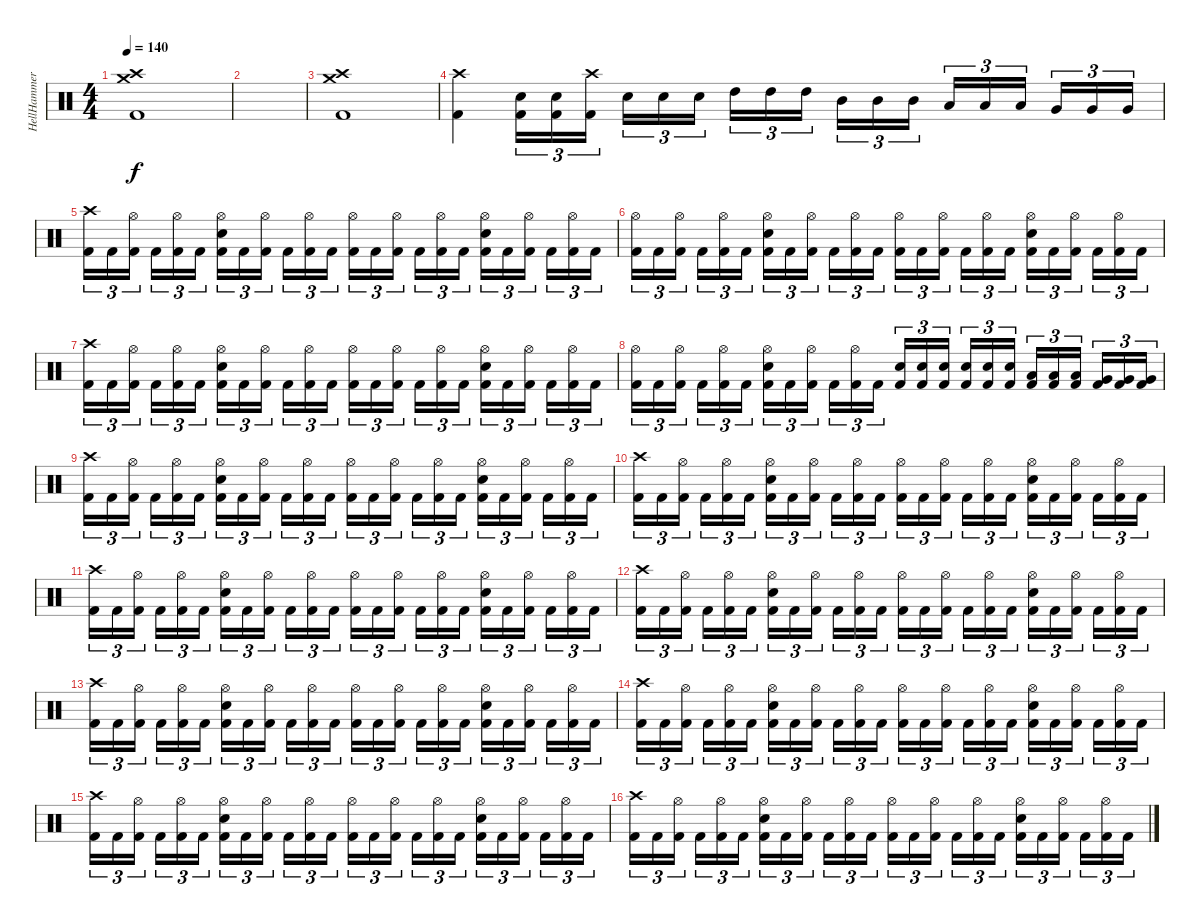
\track ("HellHammer" "HellHammer") {instrument percussion}
\staff {score}
\articulation defaults
\ts (4 4)
\tempo 140
\clef neutral
\ks c
("Crash medium (hit)" "Crash high (hit)" "Kick (hit) 2").1{dy f} |
|
("Crash medium (hit)" "Crash high (hit)" "Kick (hit) 2").1 |
("Crash high (hit)" "Kick (hit) 2").4 ("Electric Snare (hit)" "Kick (hit) 2").16{tu (3 2)} ("Electric Snare (hit)" "Kick (hit) 2").16{tu (3 2)} ("Crash high (hit)" "Kick (hit) 2").16{tu (3 2) beam splitsecondary} "Electric Snare (hit)".16{tu (3 2)} "Electric Snare (hit)".16{tu (3 2)} "Electric Snare (hit)".16{tu (3 2)} "High Tom (hit)".16{tu (3 2)} "High Tom (hit)".16{tu (3 2)} "High Tom (hit)".16{tu (3 2) beam splitsecondary} "Mid Tom (hit)".16{tu (3 2)} "Mid Tom (hit)".16{tu (3 2)} "Mid Tom (hit)".16{tu (3 2)} "Low Tom (hit)".16{tu (3 2)} "Low Tom (hit)".16{tu (3 2)} "Low Tom (hit)".16{tu (3 2) beam splitsecondary} "Very Low Tom (hit)".16{tu (3 2)} "Very Low Tom (hit)".16{tu (3 2)} "Very Low Tom (hit)".16{tu (3 2)} |
("Crash high (hit)" "Kick (hit) 2").16{tu (3 2)} "Kick (hit) 2".16{tu (3 2)} ("Hi-Hat (open)" "Kick (hit) 2").16{tu (3 2) beam splitsecondary} "Kick (hit) 2".16{tu (3 2)} ("Hi-Hat (open)" "Kick (hit) 2").16{tu (3 2)} "Kick (hit) 2".16{tu (3 2)} ("Hi-Hat (open)" "Electric Snare (hit)" "Kick (hit) 2").16{tu (3 2)} "Kick (hit) 2".16{tu (3 2)} ("Hi-Hat (open)" "Kick (hit) 2").16{tu (3 2) beam splitsecondary} "Kick (hit) 2".16{tu (3 2)} ("Hi-Hat (open)" "Kick (hit) 2").16{tu (3 2)} "Kick (hit) 2".16{tu (3 2)} ("Hi-Hat (open)" "Kick (hit) 2").16{tu (3 2)} "Kick (hit) 2".16{tu (3 2)} ("Hi-Hat (open)" "Kick (hit) 2").16{tu (3 2) beam splitsecondary} "Kick (hit) 2".16{tu (3 2)} ("Hi-Hat (open)" "Kick (hit) 2").16{tu (3 2)} "Kick (hit) 2".16{tu (3 2)} ("Hi-Hat (open)" "Electric Snare (hit)" "Kick (hit) 2").16{tu (3 2)} "Kick (hit) 2".16{tu (3 2)} ("Hi-Hat (open)" "Kick (hit) 2").16{tu (3 2) beam splitsecondary} "Kick (hit) 2".16{tu (3 2)} ("Hi-Hat (open)" "Kick (hit) 2").16{tu (3 2)} "Kick (hit) 2".16{tu (3 2)} |
("Hi-Hat (open)" "Kick (hit) 2").16{tu (3 2)} "Kick (hit) 2".16{tu (3 2)} ("Hi-Hat (open)" "Kick (hit) 2").16{tu (3 2) beam splitsecondary} "Kick (hit) 2".16{tu (3 2)} ("Hi-Hat (open)" "Kick (hit) 2").16{tu (3 2)} "Kick (hit) 2".16{tu (3 2)} ("Hi-Hat (open)" "Electric Snare (hit)" "Kick (hit) 2").16{tu (3 2)} "Kick (hit) 2".16{tu (3 2)} ("Hi-Hat (open)" "Kick (hit) 2").16{tu (3 2) beam splitsecondary} "Kick (hit) 2".16{tu (3 2)} ("Hi-Hat (open)" "Kick (hit) 2").16{tu (3 2)} "Kick (hit) 2".16{tu (3 2)} ("Hi-Hat (open)" "Kick (hit) 2").16{tu (3 2)} "Kick (hit) 2".16{tu (3 2)} ("Hi-Hat (open)" "Kick (hit) 2").16{tu (3 2) beam splitsecondary} "Kick (hit) 2".16{tu (3 2)} ("Hi-Hat (open)" "Kick (hit) 2").16{tu (3 2)} "Kick (hit) 2".16{tu (3 2)} ("Hi-Hat (open)" "Electric Snare (hit)" "Kick (hit) 2").16{tu (3 2)} "Kick (hit) 2".16{tu (3 2)} ("Hi-Hat (open)" "Kick (hit) 2").16{tu (3 2) beam splitsecondary} "Kick (hit) 2".16{tu (3 2)} ("Hi-Hat (open)" "Kick (hit) 2").16{tu (3 2)} "Kick (hit) 2".16{tu (3 2)} |
("Crash high (hit)" "Kick (hit) 2").16{tu (3 2)} "Kick (hit) 2".16{tu (3 2)} ("Hi-Hat (open)" "Kick (hit) 2").16{tu (3 2) beam splitsecondary} "Kick (hit) 2".16{tu (3 2)} ("Hi-Hat (open)" "Kick (hit) 2").16{tu (3 2)} "Kick (hit) 2".16{tu (3 2)} ("Hi-Hat (open)" "Electric Snare (hit)" "Kick (hit) 2").16{tu (3 2)} "Kick (hit) 2".16{tu (3 2)} ("Hi-Hat (open)" "Kick (hit) 2").16{tu (3 2) beam splitsecondary} "Kick (hit) 2".16{tu (3 2)} ("Hi-Hat (open)" "Kick (hit) 2").16{tu (3 2)} "Kick (hit) 2".16{tu (3 2)} ("Hi-Hat (open)" "Kick (hit) 2").16{tu (3 2)} "Kick (hit) 2".16{tu (3 2)} ("Hi-Hat (open)" "Kick (hit) 2").16{tu (3 2) beam splitsecondary} "Kick (hit) 2".16{tu (3 2)} ("Hi-Hat (open)" "Kick (hit) 2").16{tu (3 2)} "Kick (hit) 2".16{tu (3 2)} ("Hi-Hat (open)" "Electric Snare (hit)" "Kick (hit) 2").16{tu (3 2)} "Kick (hit) 2".16{tu (3 2)} ("Hi-Hat (open)" "Kick (hit) 2").16{tu (3 2) beam splitsecondary} "Kick (hit) 2".16{tu (3 2)} ("Hi-Hat (open)" "Kick (hit) 2").16{tu (3 2)} "Kick (hit) 2".16{tu (3 2)} |
("Hi-Hat (open)" "Kick (hit) 2").16{tu (3 2)} "Kick (hit) 2".16{tu (3 2)} ("Hi-Hat (open)" "Kick (hit) 2").16{tu (3 2) beam splitsecondary} "Kick (hit) 2".16{tu (3 2)} ("Hi-Hat (open)" "Kick (hit) 2").16{tu (3 2)} "Kick (hit) 2".16{tu (3 2)} ("Hi-Hat (open)" "Electric Snare (hit)" "Kick (hit) 2").16{tu (3 2)} "Kick (hit) 2".16{tu (3 2)} ("Hi-Hat (open)" "Kick (hit) 2").16{tu (3 2) beam splitsecondary} "Kick (hit) 2".16{tu (3 2)} ("Hi-Hat (open)" "Kick (hit) 2").16{tu (3 2)} "Kick (hit) 2".16{tu (3 2)} ("Electric Snare (hit)" "Kick (hit) 2").16{tu (3 2)} ("Electric Snare (hit)" "Kick (hit) 2").16{tu (3 2)} ("Electric Snare (hit)" "Kick (hit) 2").16{tu (3 2) beam splitsecondary} ("Electric Snare (hit)" "Kick (hit) 2").16{tu (3 2)} ("Electric Snare (hit)" "Kick (hit) 2").16{tu (3 2)} ("Electric Snare (hit)" "Kick (hit) 2").16{tu (3 2)} ("Low Tom (hit)" "Kick (hit) 2").16{tu (3 2)} ("Low Tom (hit)" "Kick (hit) 2").16{tu (3 2)} ("Low Tom (hit)" "Kick (hit) 2").16{tu (3 2) beam splitsecondary} ("Very Low Tom (hit)" "Kick (hit) 2").16{tu (3 2)} ("Very Low Tom (hit)" "Kick (hit) 2").16{tu (3 2)} ("Very Low Tom (hit)" "Kick (hit) 2").16{tu (3 2)} |
("Crash high (hit)" "Kick (hit) 2").16{tu (3 2)} "Kick (hit) 2".16{tu (3 2)} ("Hi-Hat (open)" "Kick (hit) 2").16{tu (3 2) beam splitsecondary} "Kick (hit) 2".16{tu (3 2)} ("Hi-Hat (open)" "Kick (hit) 2").16{tu (3 2)} "Kick (hit) 2".16{tu (3 2)} ("Hi-Hat (open)" "Electric Snare (hit)" "Kick (hit) 2").16{tu (3 2)} "Kick (hit) 2".16{tu (3 2)} ("Hi-Hat (open)" "Kick (hit) 2").16{tu (3 2) beam splitsecondary} "Kick (hit) 2".16{tu (3 2)} ("Hi-Hat (open)" "Kick (hit) 2").16{tu (3 2)} "Kick (hit) 2".16{tu (3 2)} ("Hi-Hat (open)" "Kick (hit) 2").16{tu (3 2)} "Kick (hit) 2".16{tu (3 2)} ("Hi-Hat (open)" "Kick (hit) 2").16{tu (3 2) beam splitsecondary} "Kick (hit) 2".16{tu (3 2)} ("Hi-Hat (open)" "Kick (hit) 2").16{tu (3 2)} "Kick (hit) 2".16{tu (3 2)} ("Hi-Hat (open)" "Electric Snare (hit)" "Kick (hit) 2").16{tu (3 2)} "Kick (hit) 2".16{tu (3 2)} ("Hi-Hat (open)" "Kick (hit) 2").16{tu (3 2) beam splitsecondary} "Kick (hit) 2".16{tu (3 2)} ("Hi-Hat (open)" "Kick (hit) 2").16{tu (3 2)} "Kick (hit) 2".16{tu (3 2)} |
("Crash high (hit)" "Kick (hit) 2").16{tu (3 2)} "Kick (hit) 2".16{tu (3 2)} ("Hi-Hat (open)" "Kick (hit) 2").16{tu (3 2) beam splitsecondary} "Kick (hit) 2".16{tu (3 2)} ("Hi-Hat (open)" "Kick (hit) 2").16{tu (3 2)} "Kick (hit) 2".16{tu (3 2)} ("Hi-Hat (open)" "Electric Snare (hit)" "Kick (hit) 2").16{tu (3 2)} "Kick (hit) 2".16{tu (3 2)} ("Hi-Hat (open)" "Kick (hit) 2").16{tu (3 2) beam splitsecondary} "Kick (hit) 2".16{tu (3 2)} ("Hi-Hat (open)" "Kick (hit) 2").16{tu (3 2)} "Kick (hit) 2".16{tu (3 2)} ("Hi-Hat (open)" "Kick (hit) 2").16{tu (3 2)} "Kick (hit) 2".16{tu (3 2)} ("Hi-Hat (open)" "Kick (hit) 2").16{tu (3 2) beam splitsecondary} "Kick (hit) 2".16{tu (3 2)} ("Hi-Hat (open)" "Kick (hit) 2").16{tu (3 2)} "Kick (hit) 2".16{tu (3 2)} ("Hi-Hat (open)" "Electric Snare (hit)" "Kick (hit) 2").16{tu (3 2)} "Kick (hit) 2".16{tu (3 2)} ("Hi-Hat (open)" "Kick (hit) 2").16{tu (3 2) beam splitsecondary} "Kick (hit) 2".16{tu (3 2)} ("Hi-Hat (open)" "Kick (hit) 2").16{tu (3 2)} "Kick (hit) 2".16{tu (3 2)} |
("Crash high (hit)" "Kick (hit) 2").16{tu (3 2)} "Kick (hit) 2".16{tu (3 2)} ("Hi-Hat (open)" "Kick (hit) 2").16{tu (3 2) beam splitsecondary} "Kick (hit) 2".16{tu (3 2)} ("Hi-Hat (open)" "Kick (hit) 2").16{tu (3 2)} "Kick (hit) 2".16{tu (3 2)} ("Hi-Hat (open)" "Electric Snare (hit)" "Kick (hit) 2").16{tu (3 2)} "Kick (hit) 2".16{tu (3 2)} ("Hi-Hat (open)" "Kick (hit) 2").16{tu (3 2) beam splitsecondary} "Kick (hit) 2".16{tu (3 2)} ("Hi-Hat (open)" "Kick (hit) 2").16{tu (3 2)} "Kick (hit) 2".16{tu (3 2)} ("Hi-Hat (open)" "Kick (hit) 2").16{tu (3 2)} "Kick (hit) 2".16{tu (3 2)} ("Hi-Hat (open)" "Kick (hit) 2").16{tu (3 2) beam splitsecondary} "Kick (hit) 2".16{tu (3 2)} ("Hi-Hat (open)" "Kick (hit) 2").16{tu (3 2)} "Kick (hit) 2".16{tu (3 2)} ("Hi-Hat (open)" "Electric Snare (hit)" "Kick (hit) 2").16{tu (3 2)} "Kick (hit) 2".16{tu (3 2)} ("Hi-Hat (open)" "Kick (hit) 2").16{tu (3 2) beam splitsecondary} "Kick (hit) 2".16{tu (3 2)} ("Hi-Hat (open)" "Kick (hit) 2").16{tu (3 2)} "Kick (hit) 2".16{tu (3 2)} |
("Crash high (hit)" "Kick (hit) 2").16{tu (3 2)} "Kick (hit) 2".16{tu (3 2)} ("Hi-Hat (open)" "Kick (hit) 2").16{tu (3 2) beam splitsecondary} "Kick (hit) 2".16{tu (3 2)} ("Hi-Hat (open)" "Kick (hit) 2").16{tu (3 2)} "Kick (hit) 2".16{tu (3 2)} ("Hi-Hat (open)" "Electric Snare (hit)" "Kick (hit) 2").16{tu (3 2)} "Kick (hit) 2".16{tu (3 2)} ("Hi-Hat (open)" "Kick (hit) 2").16{tu (3 2) beam splitsecondary} "Kick (hit) 2".16{tu (3 2)} ("Hi-Hat (open)" "Kick (hit) 2").16{tu (3 2)} "Kick (hit) 2".16{tu (3 2)} ("Hi-Hat (open)" "Kick (hit) 2").16{tu (3 2)} "Kick (hit) 2".16{tu (3 2)} ("Hi-Hat (open)" "Kick (hit) 2").16{tu (3 2) beam splitsecondary} "Kick (hit) 2".16{tu (3 2)} ("Hi-Hat (open)" "Kick (hit) 2").16{tu (3 2)} "Kick (hit) 2".16{tu (3 2)} ("Hi-Hat (open)" "Electric Snare (hit)" "Kick (hit) 2").16{tu (3 2)} "Kick (hit) 2".16{tu (3 2)} ("Hi-Hat (open)" "Kick (hit) 2").16{tu (3 2) beam splitsecondary} "Kick (hit) 2".16{tu (3 2)} ("Hi-Hat (open)" "Kick (hit) 2").16{tu (3 2)} "Kick (hit) 2".16{tu (3 2)} |
("Crash high (hit)" "Kick (hit) 2").16{tu (3 2)} "Kick (hit) 2".16{tu (3 2)} ("Hi-Hat (open)" "Kick (hit) 2").16{tu (3 2) beam splitsecondary} "Kick (hit) 2".16{tu (3 2)} ("Hi-Hat (open)" "Kick (hit) 2").16{tu (3 2)} "Kick (hit) 2".16{tu (3 2)} ("Hi-Hat (open)" "Electric Snare (hit)" "Kick (hit) 2").16{tu (3 2)} "Kick (hit) 2".16{tu (3 2)} ("Hi-Hat (open)" "Kick (hit) 2").16{tu (3 2) beam splitsecondary} "Kick (hit) 2".16{tu (3 2)} ("Hi-Hat (open)" "Kick (hit) 2").16{tu (3 2)} "Kick (hit) 2".16{tu (3 2)} ("Hi-Hat (open)" "Kick (hit) 2").16{tu (3 2)} "Kick (hit) 2".16{tu (3 2)} ("Hi-Hat (open)" "Kick (hit) 2").16{tu (3 2) beam splitsecondary} "Kick (hit) 2".16{tu (3 2)} ("Hi-Hat (open)" "Kick (hit) 2").16{tu (3 2)} "Kick (hit) 2".16{tu (3 2)} ("Hi-Hat (open)" "Electric Snare (hit)" "Kick (hit) 2").16{tu (3 2)} "Kick (hit) 2".16{tu (3 2)} ("Hi-Hat (open)" "Kick (hit) 2").16{tu (3 2) beam splitsecondary} "Kick (hit) 2".16{tu (3 2)} ("Hi-Hat (open)" "Kick (hit) 2").16{tu (3 2)} "Kick (hit) 2".16{tu (3 2)} |
("Crash high (hit)" "Kick (hit) 2").16{tu (3 2)} "Kick (hit) 2".16{tu (3 2)} ("Hi-Hat (open)" "Kick (hit) 2").16{tu (3 2) beam splitsecondary} "Kick (hit) 2".16{tu (3 2)} ("Hi-Hat (open)" "Kick (hit) 2").16{tu (3 2)} "Kick (hit) 2".16{tu (3 2)} ("Hi-Hat (open)" "Electric Snare (hit)" "Kick (hit) 2").16{tu (3 2)} "Kick (hit) 2".16{tu (3 2)} ("Hi-Hat (open)" "Kick (hit) 2").16{tu (3 2) beam splitsecondary} "Kick (hit) 2".16{tu (3 2)} ("Hi-Hat (open)" "Kick (hit) 2").16{tu (3 2)} "Kick (hit) 2".16{tu (3 2)} ("Hi-Hat (open)" "Kick (hit) 2").16{tu (3 2)} "Kick (hit) 2".16{tu (3 2)} ("Hi-Hat (open)" "Kick (hit) 2").16{tu (3 2) beam splitsecondary} "Kick (hit) 2".16{tu (3 2)} ("Hi-Hat (open)" "Kick (hit) 2").16{tu (3 2)} "Kick (hit) 2".16{tu (3 2)} ("Hi-Hat (open)" "Electric Snare (hit)" "Kick (hit) 2").16{tu (3 2)} "Kick (hit) 2".16{tu (3 2)} ("Hi-Hat (open)" "Kick (hit) 2").16{tu (3 2) beam splitsecondary} "Kick (hit) 2".16{tu (3 2)} ("Hi-Hat (open)" "Kick (hit) 2").16{tu (3 2)} "Kick (hit) 2".16{tu (3 2)} |
("Crash high (hit)" "Kick (hit) 2").16{tu (3 2)} "Kick (hit) 2".16{tu (3 2)} ("Hi-Hat (open)" "Kick (hit) 2").16{tu (3 2) beam splitsecondary} "Kick (hit) 2".16{tu (3 2)} ("Hi-Hat (open)" "Kick (hit) 2").16{tu (3 2)} "Kick (hit) 2".16{tu (3 2)} ("Hi-Hat (open)" "Electric Snare (hit)" "Kick (hit) 2").16{tu (3 2)} "Kick (hit) 2".16{tu (3 2)} ("Hi-Hat (open)" "Kick (hit) 2").16{tu (3 2) beam splitsecondary} "Kick (hit) 2".16{tu (3 2)} ("Hi-Hat (open)" "Kick (hit) 2").16{tu (3 2)} "Kick (hit) 2".16{tu (3 2)} ("Hi-Hat (open)" "Kick (hit) 2").16{tu (3 2)} "Kick (hit) 2".16{tu (3 2)} ("Hi-Hat (open)" "Kick (hit) 2").16{tu (3 2) beam splitsecondary} "Kick (hit) 2".16{tu (3 2)} ("Hi-Hat (open)" "Kick (hit) 2").16{tu (3 2)} "Kick (hit) 2".16{tu (3 2)} ("Hi-Hat (open)" "Electric Snare (hit)" "Kick (hit) 2").16{tu (3 2)} "Kick (hit) 2".16{tu (3 2)} ("Hi-Hat (open)" "Kick (hit) 2").16{tu (3 2) beam splitsecondary} "Kick (hit) 2".16{tu (3 2)} ("Hi-Hat (open)" "Kick (hit) 2").16{tu (3 2)} "Kick (hit) 2".16{tu (3 2)} |
("Crash high (hit)" "Kick (hit) 2").16{tu (3 2)} "Kick (hit) 2".16{tu (3 2)} ("Hi-Hat (open)" "Kick (hit) 2").16{tu (3 2) beam splitsecondary} "Kick (hit) 2".16{tu (3 2)} ("Hi-Hat (open)" "Kick (hit) 2").16{tu (3 2)} "Kick (hit) 2".16{tu (3 2)} ("Hi-Hat (open)" "Electric Snare (hit)" "Kick (hit) 2").16{tu (3 2)} "Kick (hit) 2".16{tu (3 2)} ("Hi-Hat (open)" "Kick (hit) 2").16{tu (3 2) beam splitsecondary} "Kick (hit) 2".16{tu (3 2)} ("Hi-Hat (open)" "Kick (hit) 2").16{tu (3 2)} "Kick (hit) 2".16{tu (3 2)} ("Hi-Hat (open)" "Kick (hit) 2").16{tu (3 2)} "Kick (hit) 2".16{tu (3 2)} ("Hi-Hat (open)" "Kick (hit) 2").16{tu (3 2) beam splitsecondary} "Kick (hit) 2".16{tu (3 2)} ("Hi-Hat (open)" "Kick (hit) 2").16{tu (3 2)} "Kick (hit) 2".16{tu (3 2)} ("Hi-Hat (open)" "Electric Snare (hit)" "Kick (hit) 2").16{tu (3 2)} "Kick (hit) 2".16{tu (3 2)} ("Hi-Hat (open)" "Kick (hit) 2").16{tu (3 2) beam splitsecondary} "Kick (hit) 2".16{tu (3 2)} ("Hi-Hat (open)" "Kick (hit) 2").16{tu (3 2)} "Kick (hit) 2".16{tu (3 2)}
